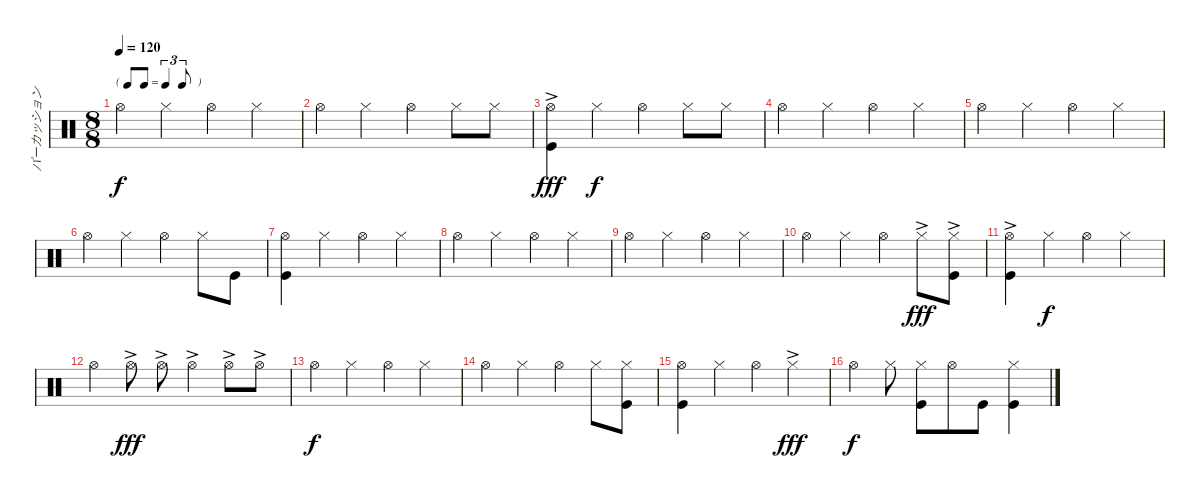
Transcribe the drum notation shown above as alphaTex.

\track ("パーカッション" "パーカッション") {instrument percussion}
\staff {score}
\articulation defaults
\ts (8 8)
\tf triplet8th
\tempo 120
\clef neutral
\ks c "Hi-Hat (open)".4{dy f} "Hi-Hat (closed)".4 "Hi-Hat (open)".4 "Hi-Hat (closed)".4
|
"Hi-Hat (open)".4 "Hi-Hat (closed)".4 "Hi-Hat (open)".4 "Hi-Hat (closed)".8 "Hi-Hat (closed)".8 |
("Hi-Hat (open)"{ac} "Kick (hit)").4{dy fff} "Hi-Hat (closed)".4{dy f} "Hi-Hat (open)".4 "Hi-Hat (closed)".8 "Hi-Hat (closed)".8 |
"Hi-Hat (open)".4 "Hi-Hat (closed)".4 "Hi-Hat (open)".4 "Hi-Hat (closed)".4 |
"Hi-Hat (open)".4 "Hi-Hat (closed)".4 "Hi-Hat (open)".4 "Hi-Hat (closed)".4 |
"Hi-Hat (open)".4 "Hi-Hat (closed)".4 "Hi-Hat (open)".4 "Hi-Hat (closed)".8 "Kick (hit)".8 |
("Hi-Hat (open)" "Kick (hit)").4 "Hi-Hat (closed)".4 "Hi-Hat (open)".4 "Hi-Hat (closed)".4 |
"Hi-Hat (open)".4 "Hi-Hat (closed)".4 "Hi-Hat (open)".4 "Hi-Hat (closed)".4 |
"Hi-Hat (open)".4 "Hi-Hat (closed)".4 "Hi-Hat (open)".4 "Hi-Hat (closed)".4 |
"Hi-Hat (open)".4 "Hi-Hat (closed)".4 "Hi-Hat (open)".4 "Hi-Hat (closed)"{ac}.8{dy fff} ("Hi-Hat (closed)"{ac} "Kick (hit)").8 |
("Hi-Hat (open)"{ac} "Kick (hit)").4 "Hi-Hat (closed)".4{dy f} "Hi-Hat (open)".4 "Hi-Hat (closed)".4 |
"Hi-Hat (open)".4 "Hi-Hat (open)"{ac}.8{dy fff} "Hi-Hat (open)"{ac}.8 "Hi-Hat (open)"{ac}.4 "Hi-Hat (open)"{ac}.8 "Hi-Hat (open)"{ac}.8 |
"Hi-Hat (open)".4{dy f} "Hi-Hat (closed)".4 "Hi-Hat (open)".4 "Hi-Hat (closed)".4 |
"Hi-Hat (open)".4 "Hi-Hat (closed)".4 "Hi-Hat (open)".4 "Hi-Hat (closed)".8 ("Hi-Hat (closed)" "Kick (hit)").8 |
("Hi-Hat (open)" "Kick (hit)").4 "Hi-Hat (closed)".4 "Hi-Hat (open)".4 "Hi-Hat (closed)"{ac}.4{dy fff} |
"Hi-Hat (open)".4{dy f} "Hi-Hat (closed)".8 ("Hi-Hat (closed)" "Kick (hit)").8 "Hi-Hat (open)".8 "Kick (hit)".8 ("Hi-Hat (closed)" "Kick (hit)").4
